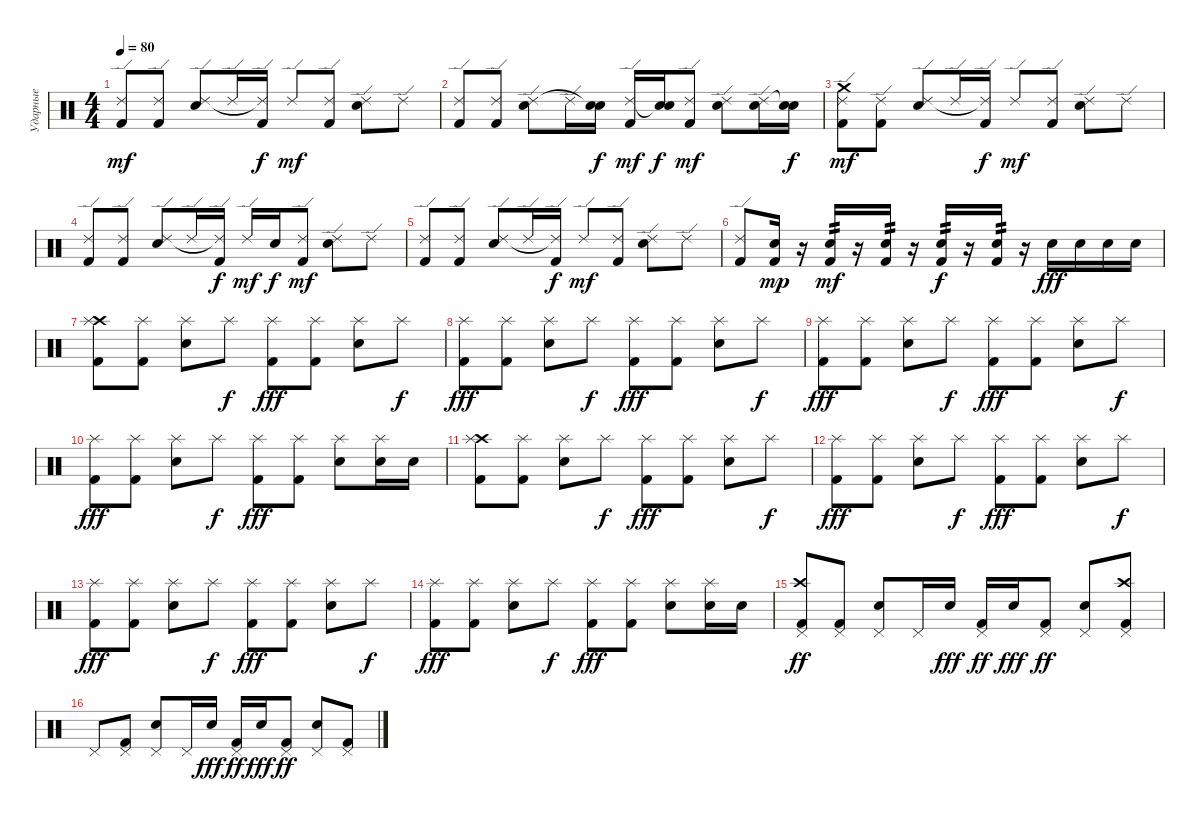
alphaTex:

\track ("Ударные" "Ударные") {instrument percussion}
\staff {score}
\articulation defaults
\ts (4 4)
\tempo 80
\clef neutral
\ks c
("Kick (hit) 2" "Ride (edge) 2").8{dy mf} ("Kick (hit) 2" "Ride (edge) 2").8 ("Snare (hit) 2" "Ride (edge) 2").8 "Ride (edge) 2".16 ("Kick (hit) 2" "Ride (edge) 2"{t}).16{dy f} "Ride (edge) 2".8{dy mf} ("Kick (hit) 2" "Ride (edge) 2").8 ("Snare (hit) 2" "Ride (edge) 2").8 "Ride (edge) 2".8 |
("Kick (hit) 2" "Ride (edge) 2").8 ("Kick (hit) 2" "Ride (edge) 2").8 ("Snare (hit) 2" "Ride (edge) 2").8 "Ride (edge) 2".16 ("Snare (hit) 2" "Snare (hit)"{t}).16{dy f} ("Kick (hit) 2" "Ride (edge) 2").16{dy mf} ("Snare (hit) 2" "Snare (hit)"{t}).16{dy f} ("Kick (hit) 2" "Ride (edge) 2").8{dy mf} ("Snare (hit) 2" "Ride (edge) 2").8 ("Snare (hit) 2" "Ride (edge) 2").16 ("Snare (hit) 2" "Snare (hit)"{t}).16{dy f} |
("Crash medium (hit)" "Kick (hit) 2" "Ride (edge) 2").8{dy mf} ("Kick (hit) 2" "Ride (edge) 2").8 ("Snare (hit) 2" "Ride (edge) 2").8 "Ride (edge) 2".16 ("Kick (hit) 2" "Ride (edge) 2"{t}).16{dy f} "Ride (edge) 2".8{dy mf} ("Kick (hit) 2" "Ride (edge) 2").8 ("Snare (hit) 2" "Ride (edge) 2").8 "Ride (edge) 2".8 |
("Kick (hit) 2" "Ride (edge) 2").8 ("Kick (hit) 2" "Ride (edge) 2").8 ("Snare (hit) 2" "Ride (edge) 2").8 "Ride (edge) 2".16 ("Kick (hit) 2" "Ride (edge) 2"{t}).16{dy f} "Ride (edge) 2".16{dy mf} "Snare (hit) 2".16{dy f} ("Kick (hit) 2" "Ride (edge) 2").8{dy mf} ("Snare (hit) 2" "Ride (edge) 2").8 "Ride (edge) 2".8 |
("Kick (hit) 2" "Ride (edge) 2").8 ("Kick (hit) 2" "Ride (edge) 2").8 ("Snare (hit) 2" "Ride (edge) 2").8 "Ride (edge) 2".16 ("Kick (hit) 2" "Ride (edge) 2"{t}).16{dy f} "Ride (edge) 2".8{dy mf} ("Kick (hit) 2" "Ride (edge) 2").8 ("Snare (hit) 2" "Ride (edge) 2").8 "Ride (edge) 2".8 |
("Kick (hit) 2" "Ride (edge) 2").8{volume 16} ("Snare (hit) 2" "Kick (hit) 2").16{dy mp} r.16 ("Snare (hit) 2" "Kick (hit) 2").16{tp 2 dy mf} r.16 ("Snare (hit) 2" "Kick (hit) 2").16{tp 2} r.16 ("Snare (hit) 2" "Kick (hit) 2").16{tp 2 dy f} r.16 ("Snare (hit) 2" "Kick (hit) 2").16{tp 2} r.16 "Snare (hit) 2".16{dy fff} "Snare (hit) 2".16 "Snare (hit) 2".16 "Snare (hit) 2".16 |
("Crash high (hit)" "Kick (hit) 2" "Splash (hit)").8 ("Kick (hit) 2" "Splash (hit)").8 ("Snare (hit) 2" "Splash (hit)").8 "Splash (hit)".8{dy f} ("Kick (hit) 2" "Splash (hit)").8{dy fff} ("Kick (hit) 2" "Splash (hit)").8 ("Snare (hit) 2" "Splash (hit)").8 "Splash (hit)".8{dy f} |
("Kick (hit) 2" "Splash (hit)").8{dy fff} ("Kick (hit) 2" "Splash (hit)").8 ("Snare (hit) 2" "Splash (hit)").8 "Splash (hit)".8{dy f} ("Kick (hit) 2" "Splash (hit)").8{dy fff} ("Kick (hit) 2" "Splash (hit)").8 ("Snare (hit) 2" "Splash (hit)").8 "Splash (hit)".8{dy f} |
("Kick (hit) 2" "Splash (hit)").8{dy fff} ("Kick (hit) 2" "Splash (hit)").8 ("Snare (hit) 2" "Splash (hit)").8 "Splash (hit)".8{dy f} ("Kick (hit) 2" "Splash (hit)").8{dy fff} ("Kick (hit) 2" "Splash (hit)").8 ("Snare (hit) 2" "Splash (hit)").8 "Splash (hit)".8{dy f} |
("Kick (hit) 2" "Splash (hit)").8{dy fff} ("Kick (hit) 2" "Splash (hit)").8 ("Snare (hit) 2" "Splash (hit)").8 "Splash (hit)".8{dy f} ("Kick (hit) 2" "Splash (hit)").8{dy fff} ("Kick (hit) 2" "Splash (hit)").8 ("Snare (hit) 2" "Splash (hit)").8 ("Electric Snare (hit)" "Splash (hit)").16 "Electric Snare (hit)".16 |
("Crash high (hit)" "Kick (hit) 2" "Splash (hit)").8 ("Kick (hit) 2" "Splash (hit)").8 ("Snare (hit) 2" "Splash (hit)").8 "Splash (hit)".8{dy f} ("Kick (hit) 2" "Splash (hit)").8{dy fff} ("Kick (hit) 2" "Splash (hit)").8 ("Snare (hit) 2" "Splash (hit)").8 "Splash (hit)".8{dy f} |
("Kick (hit) 2" "Splash (hit)").8{dy fff} ("Kick (hit) 2" "Splash (hit)").8 ("Snare (hit) 2" "Splash (hit)").8 "Splash (hit)".8{dy f} ("Kick (hit) 2" "Splash (hit)").8{dy fff} ("Kick (hit) 2" "Splash (hit)").8 ("Snare (hit) 2" "Splash (hit)").8 "Splash (hit)".8{dy f} |
("Kick (hit) 2" "Splash (hit)").8{dy fff} ("Kick (hit) 2" "Splash (hit)").8 ("Snare (hit) 2" "Splash (hit)").8 "Splash (hit)".8{dy f} ("Kick (hit) 2" "Splash (hit)").8{dy fff} ("Kick (hit) 2" "Splash (hit)").8 ("Snare (hit) 2" "Splash (hit)").8 "Splash (hit)".8{dy f} |
("Kick (hit) 2" "Splash (hit)").8{dy fff} ("Kick (hit) 2" "Splash (hit)").8 ("Snare (hit) 2" "Splash (hit)").8 "Splash (hit)".8{dy f} ("Kick (hit) 2" "Splash (hit)").8{dy fff} ("Kick (hit) 2" "Splash (hit)").8 ("Snare (hit) 2" "Splash (hit)").8 ("Electric Snare (hit)" "Splash (hit)").16 "Electric Snare (hit)".16 |
("Crash high (hit)" "Kick (hit) 2" "Pedal Hi-Hat (hit)").8{dy ff} ("Kick (hit) 2" "Pedal Hi-Hat (hit)").8 ("Snare (hit) 2" "Pedal Hi-Hat (hit)").8 "Pedal Hi-Hat (hit)".16 "Snare (hit) 2".16{dy fff} ("Kick (hit) 2" "Pedal Hi-Hat (hit)").16{dy ff} "Snare (hit) 2".16{dy fff} ("Kick (hit) 2" "Pedal Hi-Hat (hit)").8{dy ff} ("Snare (hit) 2" "Pedal Hi-Hat (hit)").8 ("Crash high (hit)" "Kick (hit) 2" "Pedal Hi-Hat (hit)").8 |
"Pedal Hi-Hat (hit)".8 ("Kick (hit) 2" "Pedal Hi-Hat (hit)").8 ("Snare (hit) 2" "Pedal Hi-Hat (hit)").8 "Pedal Hi-Hat (hit)".16 "Snare (hit) 2".16{dy fff} ("Kick (hit) 2" "Pedal Hi-Hat (hit)").16{dy ff} "Snare (hit) 2".16{dy fff} ("Kick (hit) 2" "Pedal Hi-Hat (hit)").8{dy ff} ("Snare (hit) 2" "Pedal Hi-Hat (hit)").8 ("Kick (hit) 2" "Pedal Hi-Hat (hit)").8
